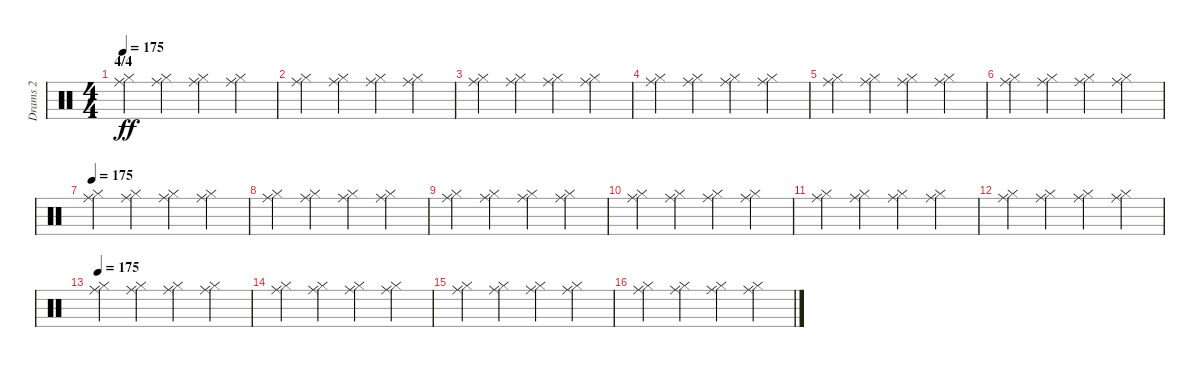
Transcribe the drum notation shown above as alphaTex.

\track ("Drams 2" "Drams 2") {instrument percussion}
\staff {score}
\articulation defaults
\ts (4 4)
\section ("" "4/4")
\tempo 175
\clef neutral
\ks c
("Ride (middle)" "Hi-Hat (closed)").4{dy ff} ("Ride (middle)" "Hi-Hat (closed)").4 ("Ride (middle)" "Hi-Hat (closed)").4 ("Ride (middle)" "Hi-Hat (closed)").4 |
("Ride (middle)" "Hi-Hat (closed)").4 ("Ride (middle)" "Hi-Hat (closed)").4 ("Ride (middle)" "Hi-Hat (closed)").4 ("Ride (middle)" "Hi-Hat (closed)").4 |
("Ride (middle)" "Hi-Hat (closed)").4 ("Ride (middle)" "Hi-Hat (closed)").4 ("Ride (middle)" "Hi-Hat (closed)").4 ("Ride (middle)" "Hi-Hat (closed)").4 |
("Ride (middle)" "Hi-Hat (closed)").4 ("Ride (middle)" "Hi-Hat (closed)").4 ("Ride (middle)" "Hi-Hat (closed)").4 ("Ride (middle)" "Hi-Hat (closed)").4 |
("Ride (middle)" "Hi-Hat (closed)").4 ("Ride (middle)" "Hi-Hat (closed)").4 ("Ride (middle)" "Hi-Hat (closed)").4 ("Ride (middle)" "Hi-Hat (closed)").4 |
("Ride (middle)" "Hi-Hat (closed)").4 ("Ride (middle)" "Hi-Hat (closed)").4 ("Ride (middle)" "Hi-Hat (closed)").4 ("Ride (middle)" "Hi-Hat (closed)").4 |
\tempo 175
("Ride (middle)" "Hi-Hat (closed)").4 ("Ride (middle)" "Hi-Hat (closed)").4 ("Ride (middle)" "Hi-Hat (closed)").4 ("Ride (middle)" "Hi-Hat (closed)").4 |
("Ride (middle)" "Hi-Hat (closed)").4 ("Ride (middle)" "Hi-Hat (closed)").4 ("Ride (middle)" "Hi-Hat (closed)").4 ("Ride (middle)" "Hi-Hat (closed)").4 |
("Ride (middle)" "Hi-Hat (closed)").4 ("Ride (middle)" "Hi-Hat (closed)").4 ("Ride (middle)" "Hi-Hat (closed)").4 ("Ride (middle)" "Hi-Hat (closed)").4 |
("Ride (middle)" "Hi-Hat (closed)").4 ("Ride (middle)" "Hi-Hat (closed)").4 ("Ride (middle)" "Hi-Hat (closed)").4 ("Ride (middle)" "Hi-Hat (closed)").4 |
("Ride (middle)" "Hi-Hat (closed)").4 ("Ride (middle)" "Hi-Hat (closed)").4 ("Ride (middle)" "Hi-Hat (closed)").4 ("Ride (middle)" "Hi-Hat (closed)").4 |
("Ride (middle)" "Hi-Hat (closed)").4 ("Ride (middle)" "Hi-Hat (closed)").4 ("Ride (middle)" "Hi-Hat (closed)").4 ("Ride (middle)" "Hi-Hat (closed)").4 |
\tempo 175
("Ride (middle)" "Hi-Hat (closed)").4 ("Ride (middle)" "Hi-Hat (closed)").4 ("Ride (middle)" "Hi-Hat (closed)").4 ("Ride (middle)" "Hi-Hat (closed)").4 |
("Ride (middle)" "Hi-Hat (closed)").4 ("Ride (middle)" "Hi-Hat (closed)").4 ("Ride (middle)" "Hi-Hat (closed)").4 ("Ride (middle)" "Hi-Hat (closed)").4 |
("Ride (middle)" "Hi-Hat (closed)").4 ("Ride (middle)" "Hi-Hat (closed)").4 ("Ride (middle)" "Hi-Hat (closed)").4 ("Ride (middle)" "Hi-Hat (closed)").4 |
("Ride (middle)" "Hi-Hat (closed)").4 ("Ride (middle)" "Hi-Hat (closed)").4 ("Ride (middle)" "Hi-Hat (closed)").4 ("Ride (middle)" "Hi-Hat (closed)").4
